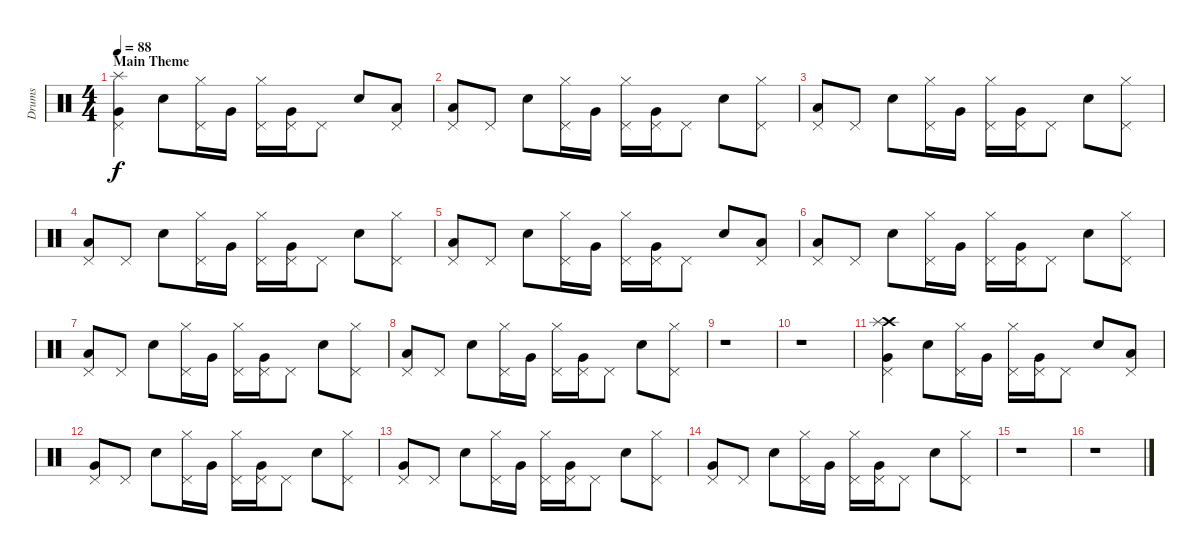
\track ("Drums" "Drums") {instrument percussion}
\staff {score}
\articulation defaults
\ts (4 4)
\section ("" "Main Theme")
\tempo 88
\clef neutral
\ks c
("Very Low Tom (hit)" "Pedal Hi-Hat (hit)" "Splash (hit)").4{dy f} "Electric Snare (hit)".8 ("Hi-Hat (closed)" "Pedal Hi-Hat (hit)").16 "Very Low Tom (hit)".16 ("Hi-Hat (closed)" "Pedal Hi-Hat (hit)").16 ("Very Low Tom (hit)" "Pedal Hi-Hat (hit)").16 "Pedal Hi-Hat (hit)".8 "Electric Snare (hit)".8 ("Low Floor Tom (hit)" "Pedal Hi-Hat (hit)").8 |
("Low Floor Tom (hit)" "Pedal Hi-Hat (hit)").8 "Pedal Hi-Hat (hit)".8 "Electric Snare (hit)".8 ("Hi-Hat (closed)" "Pedal Hi-Hat (hit)").16 "Very Low Tom (hit)".16 ("Hi-Hat (closed)" "Pedal Hi-Hat (hit)").16 ("Very Low Tom (hit)" "Pedal Hi-Hat (hit)").16 "Pedal Hi-Hat (hit)".8 "Electric Snare (hit)".8 ("Hi-Hat (closed)" "Pedal Hi-Hat (hit)").8 |
("Low Floor Tom (hit)" "Pedal Hi-Hat (hit)").8 "Pedal Hi-Hat (hit)".8 "Electric Snare (hit)".8 ("Hi-Hat (closed)" "Pedal Hi-Hat (hit)").16 "Very Low Tom (hit)".16 ("Hi-Hat (closed)" "Pedal Hi-Hat (hit)").16 ("Very Low Tom (hit)" "Pedal Hi-Hat (hit)").16 "Pedal Hi-Hat (hit)".8 "Electric Snare (hit)".8 ("Hi-Hat (closed)" "Pedal Hi-Hat (hit)").8 |
("Low Floor Tom (hit)" "Pedal Hi-Hat (hit)").8 "Pedal Hi-Hat (hit)".8 "Electric Snare (hit)".8 ("Hi-Hat (closed)" "Pedal Hi-Hat (hit)").16 "Very Low Tom (hit)".16 ("Hi-Hat (closed)" "Pedal Hi-Hat (hit)").16 ("Very Low Tom (hit)" "Pedal Hi-Hat (hit)").16 "Pedal Hi-Hat (hit)".8 "Electric Snare (hit)".8 ("Hi-Hat (closed)" "Pedal Hi-Hat (hit)").8 |
("Low Floor Tom (hit)" "Pedal Hi-Hat (hit)").8 "Pedal Hi-Hat (hit)".8 "Electric Snare (hit)".8 ("Hi-Hat (closed)" "Pedal Hi-Hat (hit)").16 "Very Low Tom (hit)".16 ("Hi-Hat (closed)" "Pedal Hi-Hat (hit)").16 ("Very Low Tom (hit)" "Pedal Hi-Hat (hit)").16 "Pedal Hi-Hat (hit)".8 "Electric Snare (hit)".8 ("Low Floor Tom (hit)" "Pedal Hi-Hat (hit)").8 |
("Low Floor Tom (hit)" "Pedal Hi-Hat (hit)").8 "Pedal Hi-Hat (hit)".8 "Electric Snare (hit)".8 ("Hi-Hat (closed)" "Pedal Hi-Hat (hit)").16 "Very Low Tom (hit)".16 ("Hi-Hat (closed)" "Pedal Hi-Hat (hit)").16 ("Very Low Tom (hit)" "Pedal Hi-Hat (hit)").16 "Pedal Hi-Hat (hit)".8 "Electric Snare (hit)".8 ("Hi-Hat (closed)" "Pedal Hi-Hat (hit)").8 |
("Low Floor Tom (hit)" "Pedal Hi-Hat (hit)").8 "Pedal Hi-Hat (hit)".8 "Electric Snare (hit)".8 ("Hi-Hat (closed)" "Pedal Hi-Hat (hit)").16 "Very Low Tom (hit)".16 ("Hi-Hat (closed)" "Pedal Hi-Hat (hit)").16 ("Very Low Tom (hit)" "Pedal Hi-Hat (hit)").16 "Pedal Hi-Hat (hit)".8 "Electric Snare (hit)".8 ("Hi-Hat (closed)" "Pedal Hi-Hat (hit)").8 |
("Low Floor Tom (hit)" "Pedal Hi-Hat (hit)").8 "Pedal Hi-Hat (hit)".8 "Electric Snare (hit)".8 ("Hi-Hat (closed)" "Pedal Hi-Hat (hit)").16 "Very Low Tom (hit)".16 ("Hi-Hat (closed)" "Pedal Hi-Hat (hit)").16 ("Very Low Tom (hit)" "Pedal Hi-Hat (hit)").16 "Pedal Hi-Hat (hit)".8 "Electric Snare (hit)".8 ("Hi-Hat (closed)" "Pedal Hi-Hat (hit)").8 |
r.1 |
r.1 |
("Crash high (hit)" "Very Low Tom (hit)" "Pedal Hi-Hat (hit)" "Splash (hit)").4 "Electric Snare (hit)".8 ("Hi-Hat (closed)" "Pedal Hi-Hat (hit)").16 "Very Low Tom (hit)".16 ("Hi-Hat (closed)" "Pedal Hi-Hat (hit)").16 ("Very Low Tom (hit)" "Pedal Hi-Hat (hit)").16 "Pedal Hi-Hat (hit)".8 "Electric Snare (hit)".8 ("Low Floor Tom (hit)" "Pedal Hi-Hat (hit)").8 |
("Very Low Tom (hit)" "Pedal Hi-Hat (hit)").8 "Pedal Hi-Hat (hit)".8 "Electric Snare (hit)".8 ("Hi-Hat (closed)" "Pedal Hi-Hat (hit)").16 "Very Low Tom (hit)".16 ("Hi-Hat (closed)" "Pedal Hi-Hat (hit)").16 ("Very Low Tom (hit)" "Pedal Hi-Hat (hit)").16 "Pedal Hi-Hat (hit)".8 "Electric Snare (hit)".8 ("Hi-Hat (closed)" "Pedal Hi-Hat (hit)").8 |
("Very Low Tom (hit)" "Pedal Hi-Hat (hit)").8 "Pedal Hi-Hat (hit)".8 "Electric Snare (hit)".8 ("Hi-Hat (closed)" "Pedal Hi-Hat (hit)").16 "Very Low Tom (hit)".16 ("Hi-Hat (closed)" "Pedal Hi-Hat (hit)").16 ("Very Low Tom (hit)" "Pedal Hi-Hat (hit)").16 "Pedal Hi-Hat (hit)".8 "Electric Snare (hit)".8 ("Hi-Hat (closed)" "Pedal Hi-Hat (hit)").8 |
("Very Low Tom (hit)" "Pedal Hi-Hat (hit)").8 "Pedal Hi-Hat (hit)".8 "Electric Snare (hit)".8 ("Hi-Hat (closed)" "Pedal Hi-Hat (hit)").16 "Very Low Tom (hit)".16 ("Hi-Hat (closed)" "Pedal Hi-Hat (hit)").16 ("Very Low Tom (hit)" "Pedal Hi-Hat (hit)").16 "Pedal Hi-Hat (hit)".8 "Electric Snare (hit)".8 ("Hi-Hat (closed)" "Pedal Hi-Hat (hit)").8 |
r.1 |
r.1
